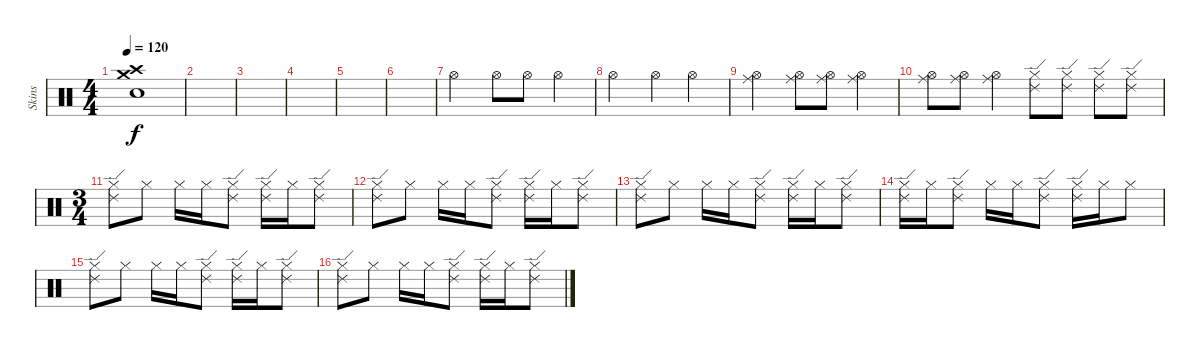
\track ("Skins" "Skins") {instrument percussion}
\staff {score}
\articulation defaults
\ts (4 4)
\tempo 120
\clef neutral
\ks c
("Crash high (hit)" "Crash medium (hit)" "Electric Snare (hit)").1{dy f} |
|
|
|
|
|
"Hi-Hat (open)".2 "Hi-Hat (open)".8 "Hi-Hat (open)".8 "Hi-Hat (open)".4 |
"Hi-Hat (open)".2 "Hi-Hat (open)".4 "Hi-Hat (open)".4 |
("Hi-Hat (open)" "Ride (middle)").2 ("Hi-Hat (open)" "Ride (middle)").8 ("Hi-Hat (open)" "Ride (middle)").8 ("Hi-Hat (open)" "Ride (middle)").4 |
("Hi-Hat (open)" "Ride (middle)").8 ("Hi-Hat (open)" "Ride (middle)").8 ("Hi-Hat (open)" "Ride (middle)").4 ("Ride (edge) 2" "Hi-Hat (closed)").8 ("Ride (edge) 2" "Hi-Hat (closed)").8 ("Ride (edge) 2" "Hi-Hat (closed)").8 ("Ride (edge) 2" "Hi-Hat (closed)").8 |
\ts (3 4)
("Ride (edge) 2" "Hi-Hat (closed)").8 "Hi-Hat (closed)".8 "Hi-Hat (closed)".16 "Hi-Hat (closed)".16 ("Ride (edge) 2" "Hi-Hat (closed)").8 ("Ride (edge) 2" "Hi-Hat (closed)").16 "Hi-Hat (closed)".16 ("Ride (edge) 2" "Hi-Hat (closed)").8 |
("Ride (edge) 2" "Hi-Hat (closed)").8 "Hi-Hat (closed)".8 "Hi-Hat (closed)".16 "Hi-Hat (closed)".16 ("Ride (edge) 2" "Hi-Hat (closed)").8 ("Ride (edge) 2" "Hi-Hat (closed)").16 "Hi-Hat (closed)".16 ("Ride (edge) 2" "Hi-Hat (closed)").8 |
("Ride (edge) 2" "Hi-Hat (closed)").8 "Hi-Hat (closed)".8 "Hi-Hat (closed)".16 "Hi-Hat (closed)".16 ("Ride (edge) 2" "Hi-Hat (closed)").8 ("Ride (edge) 2" "Hi-Hat (closed)").16 "Hi-Hat (closed)".16 ("Ride (edge) 2" "Hi-Hat (closed)").8 |
("Ride (edge) 2" "Hi-Hat (closed)").16 "Hi-Hat (closed)".16 ("Ride (edge) 2" "Hi-Hat (closed)").8 "Hi-Hat (closed)".16 "Hi-Hat (closed)".16 ("Ride (edge) 2" "Hi-Hat (closed)").8 ("Ride (edge) 2" "Hi-Hat (closed)").16 "Hi-Hat (closed)".16 "Hi-Hat (closed)".8 |
("Ride (edge) 2" "Hi-Hat (closed)").8 "Hi-Hat (closed)".8 "Hi-Hat (closed)".16 "Hi-Hat (closed)".16 ("Ride (edge) 2" "Hi-Hat (closed)").8 ("Ride (edge) 2" "Hi-Hat (closed)").16 "Hi-Hat (closed)".16 ("Ride (edge) 2" "Hi-Hat (closed)").8 |
("Ride (edge) 2" "Hi-Hat (closed)").8 "Hi-Hat (closed)".8 "Hi-Hat (closed)".16 "Hi-Hat (closed)".16 ("Ride (edge) 2" "Hi-Hat (closed)").8 ("Ride (edge) 2" "Hi-Hat (closed)").16 "Hi-Hat (closed)".16 ("Ride (edge) 2" "Hi-Hat (closed)").8
